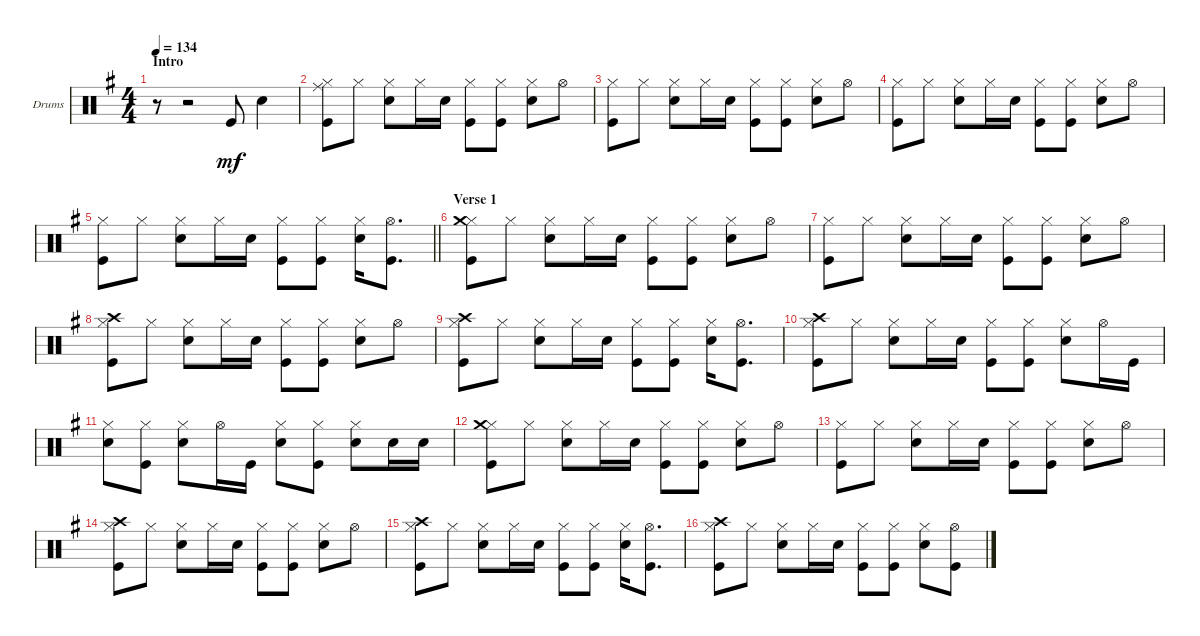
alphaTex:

\bracketExtendMode groupsimilarinstruments
\firstSystemTrackNameOrientation horizontal
\otherSystemsTrackNameOrientation horizontal
\track ("drums (Anton Zulganov)" "Drums") {instrument percussion}
\staff {score}
\articulation defaults
\ts (4 4)
\beaming (8 2 2 2 2)
\section ("" "Intro")
\tempo 134
\clef neutral
\ks eminor
r.8{dy mf} r.2 "Kick (hit)".8 "Snare (hit) 2".4 |
("Hi-Hat (closed)" "Kick (hit)" "Ride (middle)").8 "Hi-Hat (closed)".8 ("Hi-Hat (closed)" "Snare (hit) 2").8 "Hi-Hat (closed)".16 "Snare (hit) 2".16 ("Hi-Hat (closed)" "Kick (hit)").8 ("Hi-Hat (closed)" "Kick (hit)").8 ("Hi-Hat (closed)" "Snare (hit) 2").8 "Hi-Hat (open)".8 |
("Hi-Hat (closed)" "Kick (hit)").8 "Hi-Hat (closed)".8 ("Hi-Hat (closed)" "Snare (hit) 2").8 "Hi-Hat (closed)".16 "Snare (hit) 2".16 ("Hi-Hat (closed)" "Kick (hit)").8 ("Hi-Hat (closed)" "Kick (hit)").8 ("Hi-Hat (closed)" "Snare (hit) 2").8 "Hi-Hat (open)".8 |
("Hi-Hat (closed)" "Kick (hit)").8 "Hi-Hat (closed)".8 ("Hi-Hat (closed)" "Snare (hit) 2").8 "Hi-Hat (closed)".16 "Snare (hit) 2".16 ("Hi-Hat (closed)" "Kick (hit)").8 ("Hi-Hat (closed)" "Kick (hit)").8 ("Hi-Hat (closed)" "Snare (hit) 2").8 "Hi-Hat (open)".8 |
\barLineRight lightlight
("Hi-Hat (closed)" "Kick (hit)").8 "Hi-Hat (closed)".8 ("Hi-Hat (closed)" "Snare (hit) 2").8 "Hi-Hat (closed)".16 "Snare (hit) 2".16 ("Hi-Hat (closed)" "Kick (hit)").8 ("Hi-Hat (closed)" "Kick (hit)").8 ("Hi-Hat (closed)" "Snare (hit) 2").16 ("Hi-Hat (open)" "Kick (hit)").8{d} |
\section ("" "Verse 1")
("Hi-Hat (closed)" "Kick (hit)" "Crash medium (hit)").8 "Hi-Hat (closed)".8 ("Hi-Hat (closed)" "Snare (hit) 2").8 "Hi-Hat (closed)".16 "Snare (hit) 2".16 ("Hi-Hat (closed)" "Kick (hit)").8 ("Hi-Hat (closed)" "Kick (hit)").8 ("Hi-Hat (closed)" "Snare (hit) 2").8 "Hi-Hat (open)".8 |
("Hi-Hat (closed)" "Kick (hit)").8 "Hi-Hat (closed)".8 ("Hi-Hat (closed)" "Snare (hit) 2").8 "Hi-Hat (closed)".16 "Snare (hit) 2".16 ("Hi-Hat (closed)" "Kick (hit)").8 ("Hi-Hat (closed)" "Kick (hit)").8 ("Hi-Hat (closed)" "Snare (hit) 2").8 "Hi-Hat (open)".8 |
("Hi-Hat (closed)" "Kick (hit)" "Crash high (hit)").8 "Hi-Hat (closed)".8 ("Hi-Hat (closed)" "Snare (hit) 2").8 "Hi-Hat (closed)".16 "Snare (hit) 2".16 ("Hi-Hat (closed)" "Kick (hit)").8 ("Hi-Hat (closed)" "Kick (hit)").8 ("Hi-Hat (closed)" "Snare (hit) 2").8 "Hi-Hat (open)".8 |
("Hi-Hat (closed)" "Kick (hit)" "Crash high (hit)").8 "Hi-Hat (closed)".8 ("Hi-Hat (closed)" "Snare (hit) 2").8 "Hi-Hat (closed)".16 "Snare (hit) 2".16 ("Hi-Hat (closed)" "Kick (hit)").8 ("Hi-Hat (closed)" "Kick (hit)").8 ("Hi-Hat (closed)" "Snare (hit) 2").16 ("Hi-Hat (open)" "Kick (hit)").8{d} |
("Hi-Hat (closed)" "Kick (hit)" "Crash high (hit)").8 "Hi-Hat (closed)".8 ("Hi-Hat (closed)" "Snare (hit) 2").8 "Hi-Hat (closed)".16 "Snare (hit) 2".16 ("Hi-Hat (closed)" "Kick (hit)").8 ("Hi-Hat (closed)" "Kick (hit)").8 ("Hi-Hat (closed)" "Snare (hit) 2").8 "Hi-Hat (open)".16 "Kick (hit)".16 |
("Hi-Hat (closed)" "Snare (hit) 2").8 ("Kick (hit)" "Hi-Hat (closed)").8 ("Hi-Hat (closed)" "Snare (hit) 2").8 "Hi-Hat (open)".16 "Kick (hit)".16 ("Hi-Hat (closed)" "Snare (hit) 2").8 ("Hi-Hat (closed)" "Kick (hit)").8 ("Snare (hit) 2" "Hi-Hat (closed)").8 "Snare (hit) 2".16 "Snare (hit) 2".16 |
("Hi-Hat (closed)" "Kick (hit)" "Crash medium (hit)").8 "Hi-Hat (closed)".8 ("Hi-Hat (closed)" "Snare (hit) 2").8 "Hi-Hat (closed)".16 "Snare (hit) 2".16 ("Hi-Hat (closed)" "Kick (hit)").8 ("Hi-Hat (closed)" "Kick (hit)").8 ("Hi-Hat (closed)" "Snare (hit) 2").8 "Hi-Hat (open)".8 |
("Hi-Hat (closed)" "Kick (hit)").8 "Hi-Hat (closed)".8 ("Hi-Hat (closed)" "Snare (hit) 2").8 "Hi-Hat (closed)".16 "Snare (hit) 2".16 ("Hi-Hat (closed)" "Kick (hit)").8 ("Hi-Hat (closed)" "Kick (hit)").8 ("Hi-Hat (closed)" "Snare (hit) 2").8 "Hi-Hat (open)".8 |
("Hi-Hat (closed)" "Kick (hit)" "Crash high (hit)").8 "Hi-Hat (closed)".8 ("Hi-Hat (closed)" "Snare (hit) 2").8 "Hi-Hat (closed)".16 "Snare (hit) 2".16 ("Hi-Hat (closed)" "Kick (hit)").8 ("Hi-Hat (closed)" "Kick (hit)").8 ("Hi-Hat (closed)" "Snare (hit) 2").8 "Hi-Hat (open)".8 |
("Hi-Hat (closed)" "Kick (hit)" "Crash high (hit)").8 "Hi-Hat (closed)".8 ("Hi-Hat (closed)" "Snare (hit) 2").8 "Hi-Hat (closed)".16 "Snare (hit) 2".16 ("Hi-Hat (closed)" "Kick (hit)").8 ("Hi-Hat (closed)" "Kick (hit)").8 ("Hi-Hat (closed)" "Snare (hit) 2").16 ("Hi-Hat (open)" "Kick (hit)").8{d} |
("Hi-Hat (closed)" "Kick (hit)" "Crash high (hit)").8 "Hi-Hat (closed)".8 ("Hi-Hat (closed)" "Snare (hit) 2").8 "Hi-Hat (closed)".16 "Snare (hit) 2".16 ("Hi-Hat (closed)" "Kick (hit)").8 ("Hi-Hat (closed)" "Kick (hit)").8 ("Hi-Hat (closed)" "Snare (hit) 2").8 ("Hi-Hat (open)" "Kick (hit)").8
